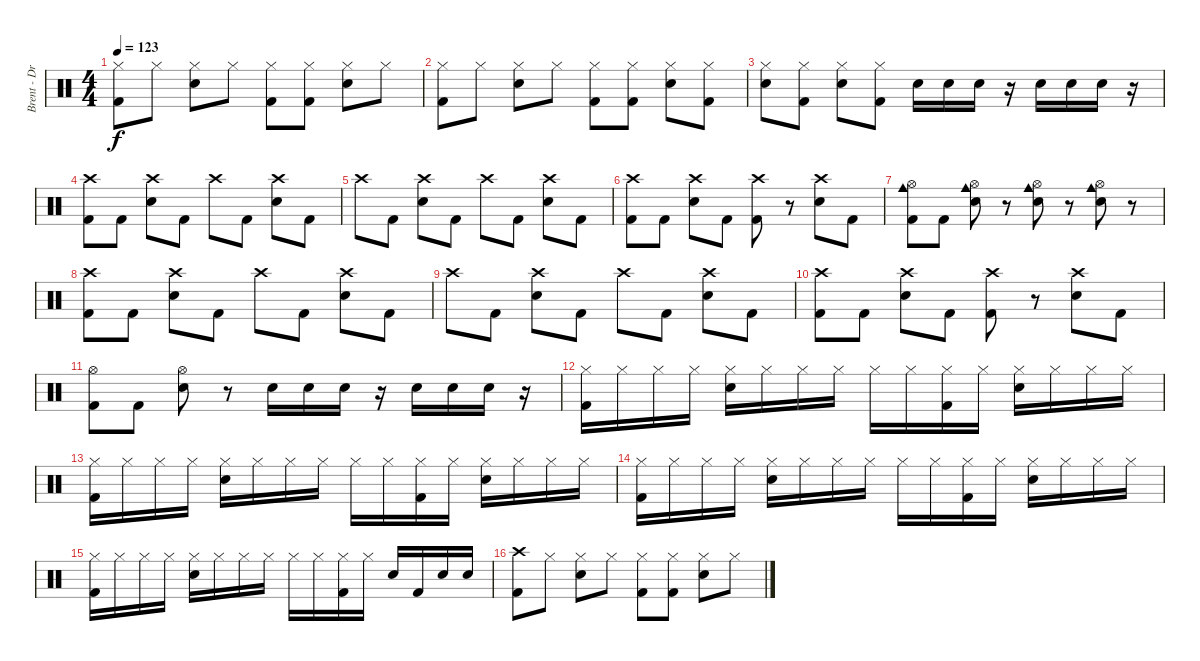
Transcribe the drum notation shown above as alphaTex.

\track ("Brent - Drums" "Brent - Dr") {instrument percussion}
\staff {score}
\articulation defaults
\ts (4 4)
\tempo 123
\clef neutral
\ks c
("Hi-Hat (closed)" "Kick (hit) 2").8{dy f} "Hi-Hat (closed)".8 ("Hi-Hat (closed)" "Snare (hit) 2").8 "Hi-Hat (closed)".8 ("Hi-Hat (closed)" "Kick (hit) 2").8 ("Hi-Hat (closed)" "Kick (hit) 2").8 ("Hi-Hat (closed)" "Snare (hit) 2").8 "Hi-Hat (closed)".8 |
("Hi-Hat (closed)" "Kick (hit) 2").8 "Hi-Hat (closed)".8 ("Hi-Hat (closed)" "Snare (hit) 2").8 "Hi-Hat (closed)".8 ("Hi-Hat (closed)" "Kick (hit) 2").8 ("Hi-Hat (closed)" "Kick (hit) 2").8 ("Hi-Hat (closed)" "Snare (hit) 2").8 ("Hi-Hat (closed)" "Kick (hit) 2").8 |
("Hi-Hat (closed)" "Snare (hit) 2").8 ("Hi-Hat (closed)" "Kick (hit) 2").8 ("Hi-Hat (closed)" "Snare (hit) 2").8 ("Hi-Hat (closed)" "Kick (hit) 2").8 "Snare (hit) 2".16 "Snare (hit) 2".16 "Snare (hit) 2".16 r.16 "Snare (hit) 2".16 "Snare (hit) 2".16 "Snare (hit) 2".16 r.16 |
("Crash high (hit)" "Kick (hit) 2").8 "Kick (hit) 2".8 ("Crash high (hit)" "Snare (hit) 2").8 "Kick (hit) 2".8 "Crash high (hit)".8 "Kick (hit) 2".8 ("Crash high (hit)" "Snare (hit) 2").8 "Kick (hit) 2".8 |
"Crash high (hit)".8 "Kick (hit) 2".8 ("Crash high (hit)" "Snare (hit) 2").8 "Kick (hit) 2".8 "Crash high (hit)".8 "Kick (hit) 2".8 ("Crash high (hit)" "Snare (hit) 2").8 "Kick (hit) 2".8 |
("Crash high (hit)" "Kick (hit) 2").8 "Kick (hit) 2".8 ("Crash high (hit)" "Snare (hit) 2").8 "Kick (hit) 2".8 ("Crash high (hit)" "Kick (hit) 2").8 r.8 ("Crash high (hit)" "Snare (hit) 2").8 "Kick (hit) 2".8 |
("Hi-Hat (open)" "Cowbell medium (hit)" "Kick (hit) 2").8 "Kick (hit) 2".8 ("Hi-Hat (open)" "Snare (hit) 2" "Cowbell medium (hit)").8 r.8 ("Hi-Hat (open)" "Snare (hit) 2" "Cowbell medium (hit)").8 r.8 ("Hi-Hat (open)" "Snare (hit) 2" "Cowbell medium (hit)").8 r.8 |
("Crash high (hit)" "Kick (hit) 2").8 "Kick (hit) 2".8 ("Crash high (hit)" "Snare (hit) 2").8 "Kick (hit) 2".8 "Crash high (hit)".8 "Kick (hit) 2".8 ("Crash high (hit)" "Snare (hit) 2").8 "Kick (hit) 2".8 |
"Crash high (hit)".8 "Kick (hit) 2".8 ("Crash high (hit)" "Snare (hit) 2").8 "Kick (hit) 2".8 "Crash high (hit)".8 "Kick (hit) 2".8 ("Crash high (hit)" "Snare (hit) 2").8 "Kick (hit) 2".8 |
("Crash high (hit)" "Kick (hit) 2").8 "Kick (hit) 2".8 ("Crash high (hit)" "Snare (hit) 2").8 "Kick (hit) 2".8 ("Crash high (hit)" "Kick (hit) 2").8 r.8 ("Crash high (hit)" "Snare (hit) 2").8 "Kick (hit) 2".8 |
("Hi-Hat (open)" "Kick (hit) 2").8 "Kick (hit) 2".8 ("Hi-Hat (open)" "Snare (hit) 2").8 r.8 "Snare (hit) 2".16 "Snare (hit) 2".16 "Snare (hit) 2".16 r.16 "Snare (hit) 2".16 "Snare (hit) 2".16 "Snare (hit) 2".16 r.16 |
("Hi-Hat (closed)" "Kick (hit) 2").16 "Hi-Hat (closed)".16 "Hi-Hat (closed)".16 "Hi-Hat (closed)".16 ("Hi-Hat (closed)" "Snare (hit) 2").16 "Hi-Hat (closed)".16 "Hi-Hat (closed)".16 "Hi-Hat (closed)".16 "Hi-Hat (closed)".16 "Hi-Hat (closed)".16 ("Hi-Hat (closed)" "Kick (hit) 2").16 "Hi-Hat (closed)".16 ("Hi-Hat (closed)" "Snare (hit) 2").16 "Hi-Hat (closed)".16 "Hi-Hat (closed)".16 "Hi-Hat (closed)".16 |
("Hi-Hat (closed)" "Kick (hit) 2").16 "Hi-Hat (closed)".16 "Hi-Hat (closed)".16 "Hi-Hat (closed)".16 ("Hi-Hat (closed)" "Snare (hit) 2").16 "Hi-Hat (closed)".16 "Hi-Hat (closed)".16 "Hi-Hat (closed)".16 "Hi-Hat (closed)".16 "Hi-Hat (closed)".16 ("Hi-Hat (closed)" "Kick (hit) 2").16 "Hi-Hat (closed)".16 ("Hi-Hat (closed)" "Snare (hit) 2").16 "Hi-Hat (closed)".16 "Hi-Hat (closed)".16 "Hi-Hat (closed)".16 |
("Hi-Hat (closed)" "Kick (hit) 2").16 "Hi-Hat (closed)".16 "Hi-Hat (closed)".16 "Hi-Hat (closed)".16 ("Hi-Hat (closed)" "Snare (hit) 2").16 "Hi-Hat (closed)".16 "Hi-Hat (closed)".16 "Hi-Hat (closed)".16 "Hi-Hat (closed)".16 "Hi-Hat (closed)".16 ("Hi-Hat (closed)" "Kick (hit) 2").16 "Hi-Hat (closed)".16 ("Hi-Hat (closed)" "Snare (hit) 2").16 "Hi-Hat (closed)".16 "Hi-Hat (closed)".16 "Hi-Hat (closed)".16 |
("Hi-Hat (closed)" "Kick (hit) 2").16 "Hi-Hat (closed)".16 "Hi-Hat (closed)".16 "Hi-Hat (closed)".16 ("Hi-Hat (closed)" "Snare (hit) 2").16 "Hi-Hat (closed)".16 "Hi-Hat (closed)".16 "Hi-Hat (closed)".16 "Hi-Hat (closed)".16 "Hi-Hat (closed)".16 ("Hi-Hat (closed)" "Kick (hit) 2").16 "Hi-Hat (closed)".16 "Snare (hit) 2".16 "Kick (hit) 2".16 "Snare (hit) 2".16 "Snare (hit) 2".16 |
("Crash high (hit)" "Kick (hit) 2").8 "Hi-Hat (closed)".8 ("Hi-Hat (closed)" "Snare (hit) 2").8 "Hi-Hat (closed)".8 ("Hi-Hat (closed)" "Kick (hit) 2").8 ("Hi-Hat (closed)" "Kick (hit) 2").8 ("Hi-Hat (closed)" "Snare (hit) 2").8 "Hi-Hat (closed)".8
